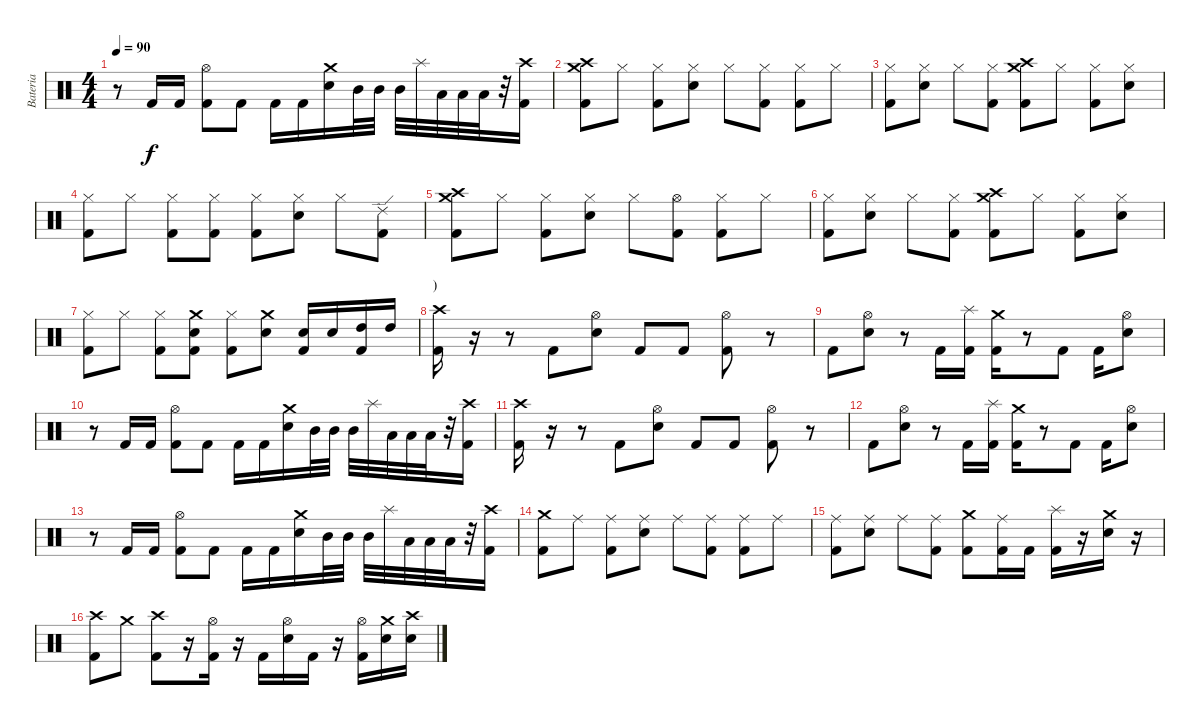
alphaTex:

\track ("Bateria" "Bateria") {instrument percussion}
\staff {score}
\articulation defaults
\ts (4 4)
\tempo 90
\clef neutral
\ks c
r.8{dy f} "Kick (hit) 2".16 "Kick (hit) 2".16 ("Hi-Hat (open)" "Kick (hit) 2").8 "Kick (hit) 2".8 "Kick (hit) 2".16 "Kick (hit) 2".16 ("Crash medium (hit)" "Snare (hit) 2").16 "Mid Tom (hit)".32 "Mid Tom (hit)".32 "Mid Tom (hit)".32 "Splash (hit)".32 "Low Tom (hit)".32 "Low Tom (hit)".32 "Low Tom (hit)".32 r.32 ("Crash high (hit)" "Kick (hit) 2").16 |
("Crash high (hit)" "Crash medium (hit)" "Kick (hit) 2").8 "Hi-Hat (closed)".8 ("Hi-Hat (closed)" "Kick (hit) 2").8 ("Hi-Hat (closed)" "Snare (hit) 2").8 "Hi-Hat (closed)".8 ("Hi-Hat (closed)" "Kick (hit) 2").8 ("Hi-Hat (closed)" "Kick (hit) 2").8 "Hi-Hat (closed)".8 |
("Hi-Hat (closed)" "Kick (hit) 2").8 ("Hi-Hat (closed)" "Snare (hit) 2").8 "Hi-Hat (closed)".8 ("Hi-Hat (closed)" "Kick (hit) 2").8 ("Crash high (hit)" "Crash medium (hit)" "Kick (hit) 2").8 "Hi-Hat (closed)".8 ("Hi-Hat (closed)" "Kick (hit) 2").8 ("Hi-Hat (closed)" "Snare (hit) 2").8 |
("Hi-Hat (closed)" "Kick (hit) 2").8 "Hi-Hat (closed)".8 ("Hi-Hat (closed)" "Kick (hit) 2").8 ("Hi-Hat (closed)" "Kick (hit) 2").8 ("Hi-Hat (closed)" "Kick (hit) 2").8 ("Hi-Hat (closed)" "Snare (hit) 2").8 "Hi-Hat (closed)".8 ("Ride (edge) 2" "Kick (hit) 2").8 |
("Crash high (hit)" "Crash medium (hit)" "Kick (hit) 2").8 "Hi-Hat (closed)".8 ("Hi-Hat (closed)" "Kick (hit) 2").8 ("Hi-Hat (closed)" "Snare (hit) 2").8 "Hi-Hat (closed)".8 ("Hi-Hat (open)" "Kick (hit) 2").8 ("Hi-Hat (closed)" "Kick (hit) 2").8 "Hi-Hat (closed)".8 |
("Hi-Hat (closed)" "Kick (hit) 2").8 ("Hi-Hat (closed)" "Snare (hit) 2").8 "Hi-Hat (closed)".8 ("Hi-Hat (closed)" "Kick (hit) 2").8 ("Crash high (hit)" "Crash medium (hit)" "Kick (hit) 2").8 "Hi-Hat (closed)".8 ("Hi-Hat (closed)" "Kick (hit) 2").8 ("Hi-Hat (closed)" "Snare (hit) 2").8 |
("Hi-Hat (closed)" "Kick (hit) 2").8 "Hi-Hat (closed)".8 ("Hi-Hat (closed)" "Kick (hit) 2").8 ("Crash medium (hit)" "Snare (hit) 2" "Kick (hit) 2").8 ("Hi-Hat (closed)" "Kick (hit) 2").8 ("Crash medium (hit)" "Snare (hit) 2").8 ("Snare (hit) 2" "Kick (hit) 2").16 "Snare (hit) 2".16 ("High Tom (hit)" "Kick (hit) 2").16 "High Tom (hit)".16 |
\section ("" ")")
("Crash high (hit)" "Kick (hit) 2").16 r.16 r.8 "Kick (hit) 2".8 ("Hi-Hat (open)" "Snare (hit) 2").8 "Kick (hit) 2".8 "Kick (hit) 2".8 ("Hi-Hat (open)" "Kick (hit) 2").8 r.8 |
"Kick (hit) 2".8 ("Hi-Hat (open)" "Snare (hit) 2").8 r.8 "Kick (hit) 2".16 ("Splash (hit)" "Kick (hit) 2").16 ("Crash medium (hit)" "Kick (hit) 2").16 r.8 "Kick (hit) 2".8 "Kick (hit) 2".16 ("Hi-Hat (open)" "Snare (hit) 2").8 |
r.8 "Kick (hit) 2".16 "Kick (hit) 2".16 ("Hi-Hat (open)" "Kick (hit) 2").8 "Kick (hit) 2".8 "Kick (hit) 2".16 "Kick (hit) 2".16 ("Crash medium (hit)" "Snare (hit) 2").16 "Mid Tom (hit)".32 "Mid Tom (hit)".32 "Mid Tom (hit)".32 "Splash (hit)".32 "Low Tom (hit)".32 "Low Tom (hit)".32 "Low Tom (hit)".32 r.32 ("Crash high (hit)" "Kick (hit) 2").16 |
("Crash high (hit)" "Kick (hit) 2").16 r.16 r.8 "Kick (hit) 2".8 ("Hi-Hat (open)" "Snare (hit) 2").8 "Kick (hit) 2".8 "Kick (hit) 2".8 ("Hi-Hat (open)" "Kick (hit) 2").8 r.8 |
"Kick (hit) 2".8 ("Hi-Hat (open)" "Snare (hit) 2").8 r.8 "Kick (hit) 2".16 ("Splash (hit)" "Kick (hit) 2").16 ("Crash medium (hit)" "Kick (hit) 2").16 r.8 "Kick (hit) 2".8 "Kick (hit) 2".16 ("Hi-Hat (open)" "Snare (hit) 2").8 |
r.8 "Kick (hit) 2".16 "Kick (hit) 2".16 ("Hi-Hat (open)" "Kick (hit) 2").8 "Kick (hit) 2".8 "Kick (hit) 2".16 "Kick (hit) 2".16 ("Crash medium (hit)" "Snare (hit) 2").16 "Mid Tom (hit)".32 "Mid Tom (hit)".32 "Mid Tom (hit)".32 "Splash (hit)".32 "Low Tom (hit)".32 "Low Tom (hit)".32 "Low Tom (hit)".32 r.32 ("Crash high (hit)" "Kick (hit) 2").16 |
("Crash medium (hit)" "Kick (hit) 2").8 "Ride (middle)".8 ("Ride (middle)" "Kick (hit) 2").8 ("Ride (middle)" "Snare (hit) 2").8 "Ride (middle)".8 ("Ride (middle)" "Kick (hit) 2").8 ("Ride (middle)" "Kick (hit) 2").8 "Ride (middle)".8 |
("Ride (middle)" "Kick (hit) 2").8 ("Ride (middle)" "Snare (hit) 2").8 "Ride (middle)".8 ("Ride (middle)" "Kick (hit) 2").8 ("Crash medium (hit)" "Kick (hit) 2").8 ("Ride (middle)" "Kick (hit) 2").16 "Kick (hit) 2".16 ("Splash (hit)" "Kick (hit) 2").16 r.16 ("Crash medium (hit)" "Snare (hit) 2").16 r.16 |
("Crash high (hit)" "Kick (hit) 2").8 "Crash medium (hit)".8 ("Crash high (hit)" "Kick (hit) 2").8 r.16 ("Hi-Hat (open)" "Kick (hit) 2").16 r.16 "Kick (hit) 2".16 ("Hi-Hat (open)" "Snare (hit) 2").16 "Kick (hit) 2".16 r.16 ("Hi-Hat (open)" "Kick (hit) 2").16 ("Crash medium (hit)" "Snare (hit) 2").16 ("Crash high (hit)" "Snare (hit) 2").16
